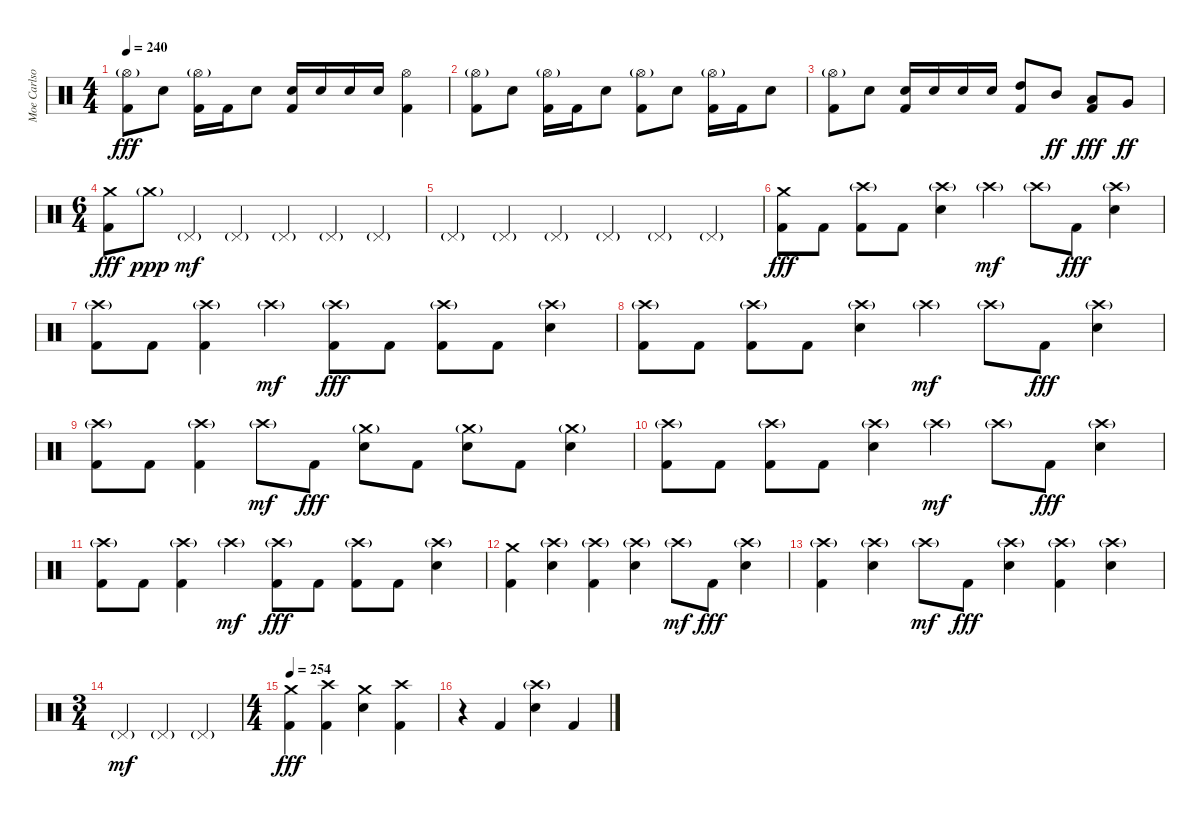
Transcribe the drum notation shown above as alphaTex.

\track ("Moe Carlson" "Moe Carlso") {instrument percussion}
\staff {score}
\articulation defaults
\ts (4 4)
\tempo 240
\clef neutral
\ks c
("Hi-Hat (open)"{g} "Kick (hit) 2").8{dy fff} "Electric Snare (hit)".8 ("Hi-Hat (open)"{g} "Kick (hit) 2").16 "Kick (hit) 2".16 "Electric Snare (hit)".8 ("Electric Snare (hit)" "Kick (hit) 2").16 "Electric Snare (hit)".16 "Electric Snare (hit)".16 "Electric Snare (hit)".16 ("Hi-Hat (open)" "Kick (hit) 2").4 |
("Hi-Hat (open)"{g} "Kick (hit) 2").8 "Electric Snare (hit)".8 ("Hi-Hat (open)"{g} "Kick (hit) 2").16 "Kick (hit) 2".16 "Electric Snare (hit)".8 ("Hi-Hat (open)"{g} "Kick (hit) 2").8 "Electric Snare (hit)".8 ("Hi-Hat (open)"{g} "Kick (hit) 2").16 "Kick (hit) 2".16 "Electric Snare (hit)".8 |
("Hi-Hat (open)"{g} "Kick (hit) 2").8 "Electric Snare (hit)".8 ("Electric Snare (hit)" "Kick (hit) 2").16 "Electric Snare (hit)".16 "Electric Snare (hit)".16 "Electric Snare (hit)".16 ("High Tom (hit)" "Kick (hit) 2").8 "Mid Tom (hit)".8{dy ff} ("Low Tom (hit)" "Kick (hit) 2").8{dy fff} "Very Low Tom (hit)".8{dy ff} |
\ts (6 4)
("Crash medium (hit)" "Kick (hit) 2").8{dy fff} "Crash medium (hit)"{g}.8{dy ppp} "Pedal Hi-Hat (hit)"{g}.4{dy mf} "Pedal Hi-Hat (hit)"{g}.4 "Pedal Hi-Hat (hit)"{g}.4 "Pedal Hi-Hat (hit)"{g}.4 "Pedal Hi-Hat (hit)"{g}.4 |
"Pedal Hi-Hat (hit)"{g}.4 "Pedal Hi-Hat (hit)"{g}.4 "Pedal Hi-Hat (hit)"{g}.4 "Pedal Hi-Hat (hit)"{g}.4 "Pedal Hi-Hat (hit)"{g}.4 "Pedal Hi-Hat (hit)"{g}.4 |
("Crash medium (hit)" "Kick (hit) 2").8{dy fff} "Kick (hit) 2".8 ("Crash high (hit)"{g} "Kick (hit) 2").8 "Kick (hit) 2".8 ("Crash high (hit)"{g} "Electric Snare (hit)").4 "Crash high (hit)"{g}.4{dy mf} "Crash high (hit)"{g}.8 "Kick (hit) 2".8{dy fff} ("Crash high (hit)"{g} "Electric Snare (hit)").4 |
("Crash high (hit)"{g} "Kick (hit) 2").8 "Kick (hit) 2".8 ("Crash high (hit)"{g} "Kick (hit) 2").4 "Crash high (hit)"{g}.4{dy mf} ("Crash high (hit)"{g} "Kick (hit) 2").8{dy fff} "Kick (hit) 2".8 ("Crash high (hit)"{g} "Kick (hit) 2").8 "Kick (hit) 2".8 ("Crash high (hit)"{g} "Electric Snare (hit)").4 |
("Crash high (hit)"{g} "Kick (hit) 2").8 "Kick (hit) 2".8 ("Crash high (hit)"{g} "Kick (hit) 2").8 "Kick (hit) 2".8 ("Crash high (hit)"{g} "Electric Snare (hit)").4 "Crash high (hit)"{g}.4{dy mf} "Crash high (hit)"{g}.8 "Kick (hit) 2".8{dy fff} ("Crash high (hit)"{g} "Electric Snare (hit)").4 |
("Crash high (hit)"{g} "Kick (hit) 2").8 "Kick (hit) 2".8 ("Crash high (hit)"{g} "Kick (hit) 2").4 "Crash high (hit)"{g}.8{dy mf} "Kick (hit) 2".8{dy fff} ("Crash medium (hit)"{g} "Electric Snare (hit)").8 "Kick (hit) 2".8 ("Crash medium (hit)"{g} "Electric Snare (hit)").8 "Kick (hit) 2".8 ("Crash medium (hit)"{g} "Electric Snare (hit)").4 |
("Crash high (hit)"{g} "Kick (hit) 2").8 "Kick (hit) 2".8 ("Crash high (hit)"{g} "Kick (hit) 2").8 "Kick (hit) 2".8 ("Crash high (hit)"{g} "Electric Snare (hit)").4 "Crash high (hit)"{g}.4{dy mf} "Crash high (hit)"{g}.8 "Kick (hit) 2".8{dy fff} ("Crash high (hit)"{g} "Electric Snare (hit)").4 |
("Crash high (hit)"{g} "Kick (hit) 2").8 "Kick (hit) 2".8 ("Crash high (hit)"{g} "Kick (hit) 2").4 "Crash high (hit)"{g}.4{dy mf} ("Crash high (hit)"{g} "Kick (hit) 2").8{dy fff} "Kick (hit) 2".8 ("Crash high (hit)"{g} "Kick (hit) 2").8 "Kick (hit) 2".8 ("Crash high (hit)"{g} "Electric Snare (hit)").4 |
("Crash medium (hit)" "Kick (hit) 2").4 ("Crash high (hit)"{g} "Electric Snare (hit)").4 ("Crash high (hit)"{g} "Kick (hit) 2").4 ("Crash high (hit)"{g} "Electric Snare (hit)").4 "Crash high (hit)"{g}.8{dy mf} "Kick (hit) 2".8{dy fff} ("Crash high (hit)"{g} "Electric Snare (hit)").4 |
("Crash high (hit)"{g} "Kick (hit) 2").4 ("Crash high (hit)"{g} "Electric Snare (hit)").4 "Crash high (hit)"{g}.8{dy mf} "Kick (hit) 2".8{dy fff} ("Crash high (hit)"{g} "Electric Snare (hit)").4 ("Crash high (hit)"{g} "Kick (hit) 2").4 ("Crash high (hit)"{g} "Electric Snare (hit)").4 |
\ts (3 4)
"Pedal Hi-Hat (hit)"{g}.4{dy mf} "Pedal Hi-Hat (hit)"{g}.4 "Pedal Hi-Hat (hit)"{g}.4 |
\ts (4 4)
\tempo 254
("Crash medium (hit)" "Kick (hit) 2").4{dy fff} ("Crash high (hit)" "Kick (hit) 2").4 ("Crash medium (hit)" "Electric Snare (hit)").4 ("Crash high (hit)" "Kick (hit) 2").4 |
r.4 "Kick (hit) 2".4 ("Crash high (hit)"{g} "Electric Snare (hit)").4 "Kick (hit) 2".4
